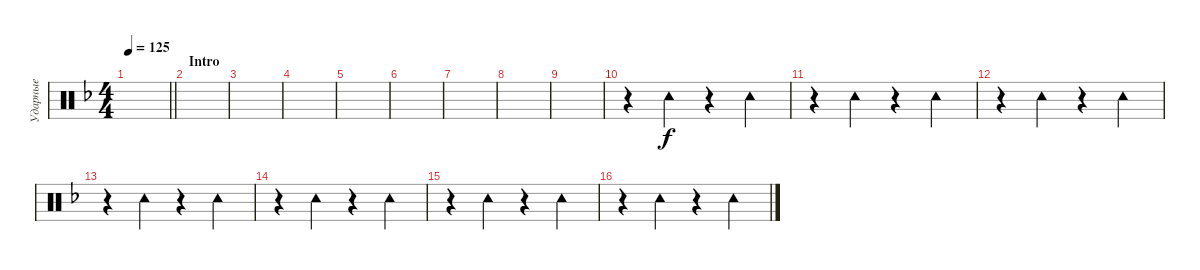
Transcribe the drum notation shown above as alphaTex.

\track ("Ударные" "Ударные") {instrument percussion}
\staff {score}
\articulation defaults
\ts (4 4)
\tempo 125
\clef neutral
\barLineRight lightlight
\ks dminor
|
\section ("" "Intro")
|
|
|
|
|
|
|
|
r.4 "Tambourine (hit)".4 r.4 "Tambourine (hit)".4 |
r.4 "Tambourine (hit)".4 r.4 "Tambourine (hit)".4 |
r.4 "Tambourine (hit)".4 r.4 "Tambourine (hit)".4 |
r.4 "Tambourine (hit)".4 r.4 "Tambourine (hit)".4 |
r.4 "Tambourine (hit)".4 r.4 "Tambourine (hit)".4 |
r.4 "Tambourine (hit)".4 r.4 "Tambourine (hit)".4 |
r.4 "Tambourine (hit)".4 r.4 "Tambourine (hit)".4
